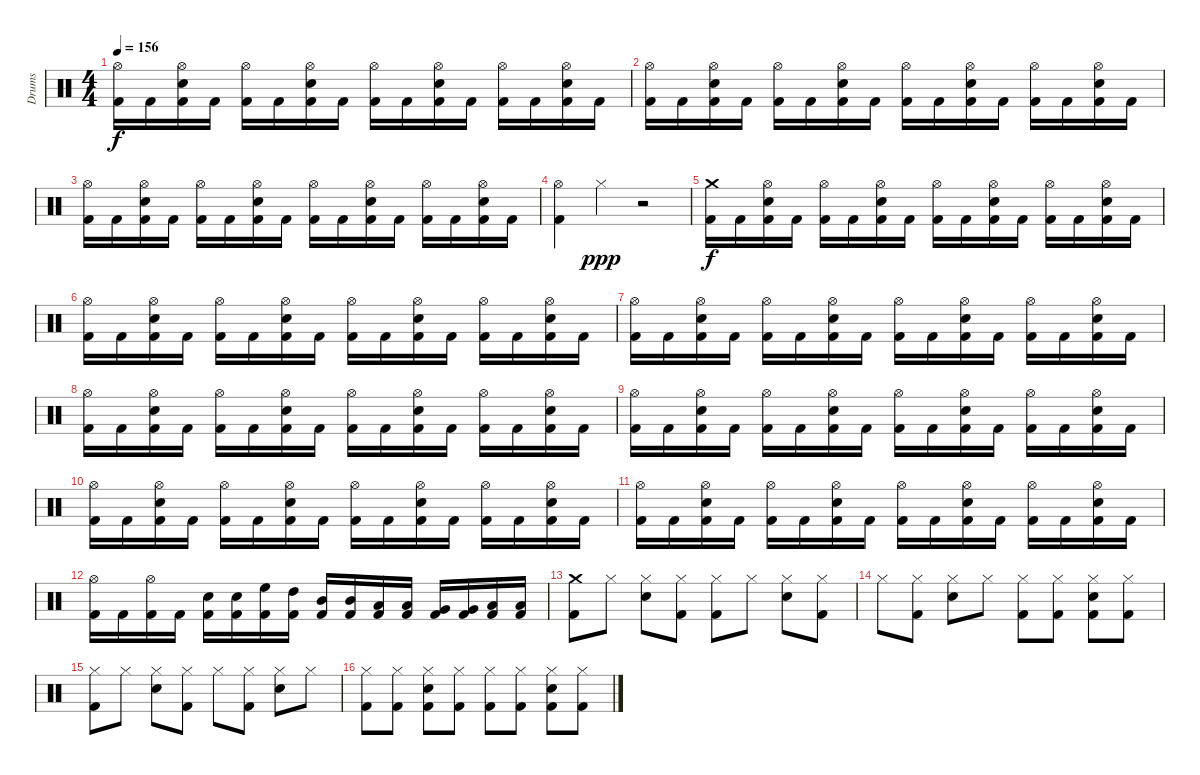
\track ("Drums" "Drums") {instrument percussion}
\staff {score}
\articulation defaults
\ts (4 4)
\tempo 156
\clef neutral
\ks c
("Kick (hit) 2" "Hi-Hat (open)").16{dy f} "Kick (hit) 2".16 ("Kick (hit) 2" "Snare (hit) 2" "Hi-Hat (open)").16 "Kick (hit) 2".16 ("Kick (hit) 2" "Hi-Hat (open)").16 "Kick (hit) 2".16 ("Kick (hit) 2" "Snare (hit) 2" "Hi-Hat (open)").16 "Kick (hit) 2".16 ("Kick (hit) 2" "Hi-Hat (open)").16 "Kick (hit) 2".16 ("Kick (hit) 2" "Snare (hit) 2" "Hi-Hat (open)").16 "Kick (hit) 2".16 ("Kick (hit) 2" "Hi-Hat (open)").16 "Kick (hit) 2".16 ("Kick (hit) 2" "Snare (hit) 2" "Hi-Hat (open)").16 "Kick (hit) 2".16 |
("Kick (hit) 2" "Hi-Hat (open)").16 "Kick (hit) 2".16 ("Kick (hit) 2" "Snare (hit) 2" "Hi-Hat (open)").16 "Kick (hit) 2".16 ("Kick (hit) 2" "Hi-Hat (open)").16 "Kick (hit) 2".16 ("Kick (hit) 2" "Snare (hit) 2" "Hi-Hat (open)").16 "Kick (hit) 2".16 ("Kick (hit) 2" "Hi-Hat (open)").16 "Kick (hit) 2".16 ("Kick (hit) 2" "Snare (hit) 2" "Hi-Hat (open)").16 "Kick (hit) 2".16 ("Kick (hit) 2" "Hi-Hat (open)").16 "Kick (hit) 2".16 ("Kick (hit) 2" "Snare (hit) 2" "Hi-Hat (open)").16 "Kick (hit) 2".16 |
("Kick (hit) 2" "Hi-Hat (open)").16 "Kick (hit) 2".16 ("Kick (hit) 2" "Snare (hit) 2" "Hi-Hat (open)").16 "Kick (hit) 2".16 ("Kick (hit) 2" "Hi-Hat (open)").16 "Kick (hit) 2".16 ("Kick (hit) 2" "Snare (hit) 2" "Hi-Hat (open)").16 "Kick (hit) 2".16 ("Kick (hit) 2" "Hi-Hat (open)").16 "Kick (hit) 2".16 ("Kick (hit) 2" "Snare (hit) 2" "Hi-Hat (open)").16 "Kick (hit) 2".16 ("Kick (hit) 2" "Hi-Hat (open)").16 "Kick (hit) 2".16 ("Kick (hit) 2" "Snare (hit) 2" "Hi-Hat (open)").16 "Kick (hit) 2".16 |
("Kick (hit) 2" "Hi-Hat (open)").4 "Hi-Hat (closed)".4{dy ppp} r.2 |
\section ("" "")
("Kick (hit) 2" "Crash medium (hit)").16{dy f} "Kick (hit) 2".16 ("Kick (hit) 2" "Snare (hit) 2" "Hi-Hat (open)").16 "Kick (hit) 2".16 ("Kick (hit) 2" "Hi-Hat (open)").16 "Kick (hit) 2".16 ("Kick (hit) 2" "Snare (hit) 2" "Hi-Hat (open)").16 "Kick (hit) 2".16 ("Kick (hit) 2" "Hi-Hat (open)").16 "Kick (hit) 2".16 ("Kick (hit) 2" "Snare (hit) 2" "Hi-Hat (open)").16 "Kick (hit) 2".16 ("Kick (hit) 2" "Hi-Hat (open)").16 "Kick (hit) 2".16 ("Kick (hit) 2" "Snare (hit) 2" "Hi-Hat (open)").16 "Kick (hit) 2".16 |
("Kick (hit) 2" "Hi-Hat (open)").16 "Kick (hit) 2".16 ("Kick (hit) 2" "Snare (hit) 2" "Hi-Hat (open)").16 "Kick (hit) 2".16 ("Kick (hit) 2" "Hi-Hat (open)").16 "Kick (hit) 2".16 ("Kick (hit) 2" "Snare (hit) 2" "Hi-Hat (open)").16 "Kick (hit) 2".16 ("Kick (hit) 2" "Hi-Hat (open)").16 "Kick (hit) 2".16 ("Kick (hit) 2" "Snare (hit) 2" "Hi-Hat (open)").16 "Kick (hit) 2".16 ("Kick (hit) 2" "Hi-Hat (open)").16 "Kick (hit) 2".16 ("Kick (hit) 2" "Snare (hit) 2" "Hi-Hat (open)").16 "Kick (hit) 2".16 |
("Kick (hit) 2" "Hi-Hat (open)").16 "Kick (hit) 2".16 ("Kick (hit) 2" "Snare (hit) 2" "Hi-Hat (open)").16 "Kick (hit) 2".16 ("Kick (hit) 2" "Hi-Hat (open)").16 "Kick (hit) 2".16 ("Kick (hit) 2" "Snare (hit) 2" "Hi-Hat (open)").16 "Kick (hit) 2".16 ("Kick (hit) 2" "Hi-Hat (open)").16 "Kick (hit) 2".16 ("Kick (hit) 2" "Snare (hit) 2" "Hi-Hat (open)").16 "Kick (hit) 2".16 ("Kick (hit) 2" "Hi-Hat (open)").16 "Kick (hit) 2".16 ("Kick (hit) 2" "Snare (hit) 2" "Hi-Hat (open)").16 "Kick (hit) 2".16 |
("Kick (hit) 2" "Hi-Hat (open)").16 "Kick (hit) 2".16 ("Kick (hit) 2" "Snare (hit) 2" "Hi-Hat (open)").16 "Kick (hit) 2".16 ("Kick (hit) 2" "Hi-Hat (open)").16 "Kick (hit) 2".16 ("Kick (hit) 2" "Snare (hit) 2" "Hi-Hat (open)").16 "Kick (hit) 2".16 ("Kick (hit) 2" "Hi-Hat (open)").16 "Kick (hit) 2".16 ("Kick (hit) 2" "Snare (hit) 2" "Hi-Hat (open)").16 "Kick (hit) 2".16 ("Kick (hit) 2" "Hi-Hat (open)").16 "Kick (hit) 2".16 ("Kick (hit) 2" "Snare (hit) 2" "Hi-Hat (open)").16 "Kick (hit) 2".16 |
("Kick (hit) 2" "Hi-Hat (open)").16 "Kick (hit) 2".16 ("Kick (hit) 2" "Snare (hit) 2" "Hi-Hat (open)").16 "Kick (hit) 2".16 ("Kick (hit) 2" "Hi-Hat (open)").16 "Kick (hit) 2".16 ("Kick (hit) 2" "Snare (hit) 2" "Hi-Hat (open)").16 "Kick (hit) 2".16 ("Kick (hit) 2" "Hi-Hat (open)").16 "Kick (hit) 2".16 ("Kick (hit) 2" "Snare (hit) 2" "Hi-Hat (open)").16 "Kick (hit) 2".16 ("Kick (hit) 2" "Hi-Hat (open)").16 "Kick (hit) 2".16 ("Kick (hit) 2" "Snare (hit) 2" "Hi-Hat (open)").16 "Kick (hit) 2".16 |
("Kick (hit) 2" "Hi-Hat (open)").16 "Kick (hit) 2".16 ("Kick (hit) 2" "Snare (hit) 2" "Hi-Hat (open)").16 "Kick (hit) 2".16 ("Kick (hit) 2" "Hi-Hat (open)").16 "Kick (hit) 2".16 ("Kick (hit) 2" "Snare (hit) 2" "Hi-Hat (open)").16 "Kick (hit) 2".16 ("Kick (hit) 2" "Hi-Hat (open)").16 "Kick (hit) 2".16 ("Kick (hit) 2" "Snare (hit) 2" "Hi-Hat (open)").16 "Kick (hit) 2".16 ("Kick (hit) 2" "Hi-Hat (open)").16 "Kick (hit) 2".16 ("Kick (hit) 2" "Snare (hit) 2" "Hi-Hat (open)").16 "Kick (hit) 2".16 |
("Kick (hit) 2" "Hi-Hat (open)").16 "Kick (hit) 2".16 ("Kick (hit) 2" "Snare (hit) 2" "Hi-Hat (open)").16 "Kick (hit) 2".16 ("Kick (hit) 2" "Hi-Hat (open)").16 "Kick (hit) 2".16 ("Kick (hit) 2" "Snare (hit) 2" "Hi-Hat (open)").16 "Kick (hit) 2".16 ("Kick (hit) 2" "Hi-Hat (open)").16 "Kick (hit) 2".16 ("Kick (hit) 2" "Snare (hit) 2" "Hi-Hat (open)").16 "Kick (hit) 2".16 ("Kick (hit) 2" "Hi-Hat (open)").16 "Kick (hit) 2".16 ("Kick (hit) 2" "Snare (hit) 2" "Hi-Hat (open)").16 "Kick (hit) 2".16 |
("Kick (hit) 2" "Hi-Hat (open)").16 "Kick (hit) 2".16 ("Kick (hit) 2" "Hi-Hat (open)").16 "Kick (hit) 2".16 ("Kick (hit) 2" "Snare (hit) 2").16 ("Kick (hit) 2" "Snare (hit) 2").16 ("Kick (hit) 2" "High Floor Tom (hit)").16 ("Kick (hit) 2" "High Tom (hit)").16 ("Kick (hit) 2" "Mid Tom (hit)").16 ("Kick (hit) 2" "Mid Tom (hit)").16 ("Kick (hit) 2" "Low Tom (hit)").16 ("Kick (hit) 2" "Low Tom (hit)").16 ("Kick (hit) 2" "Very Low Tom (hit)").16 ("Kick (hit) 2" "Very Low Tom (hit)").16 ("Kick (hit) 2" "Low Floor Tom (hit)").16 ("Kick (hit) 2" "Low Floor Tom (hit)").16 |
\section ("" "")
("Kick (hit) 2" "Crash medium (hit)").8 "Hi-Hat (closed)".8 ("Snare (hit) 2" "Hi-Hat (closed)").8 ("Kick (hit) 2" "Hi-Hat (closed)").8 ("Kick (hit) 2" "Hi-Hat (closed)").8 "Hi-Hat (closed)".8 ("Snare (hit) 2" "Hi-Hat (closed)").8 ("Kick (hit) 2" "Hi-Hat (closed)").8 |
"Hi-Hat (closed)".8 ("Kick (hit) 2" "Hi-Hat (closed)").8 ("Snare (hit) 2" "Hi-Hat (closed)").8 "Hi-Hat (closed)".8 ("Kick (hit) 2" "Hi-Hat (closed)").8 ("Kick (hit) 2" "Hi-Hat (closed)").8 ("Kick (hit) 2" "Snare (hit) 2" "Hi-Hat (closed)").8 ("Kick (hit) 2" "Hi-Hat (closed)").8 |
("Kick (hit) 2" "Hi-Hat (closed)").8 "Hi-Hat (closed)".8 ("Snare (hit) 2" "Hi-Hat (closed)").8 ("Kick (hit) 2" "Hi-Hat (closed)").8 "Hi-Hat (closed)".8 ("Kick (hit) 2" "Hi-Hat (closed)").8 ("Snare (hit) 2" "Hi-Hat (closed)").8 "Hi-Hat (closed)".8 |
("Kick (hit) 2" "Hi-Hat (closed)").8 ("Kick (hit) 2" "Hi-Hat (closed)").8 ("Kick (hit) 2" "Snare (hit) 2" "Hi-Hat (closed)").8 ("Kick (hit) 2" "Hi-Hat (closed)").8 ("Kick (hit) 2" "Hi-Hat (closed)").8 ("Kick (hit) 2" "Hi-Hat (closed)").8 ("Kick (hit) 2" "Snare (hit) 2" "Hi-Hat (closed)").8 ("Kick (hit) 2" "Hi-Hat (closed)").8
